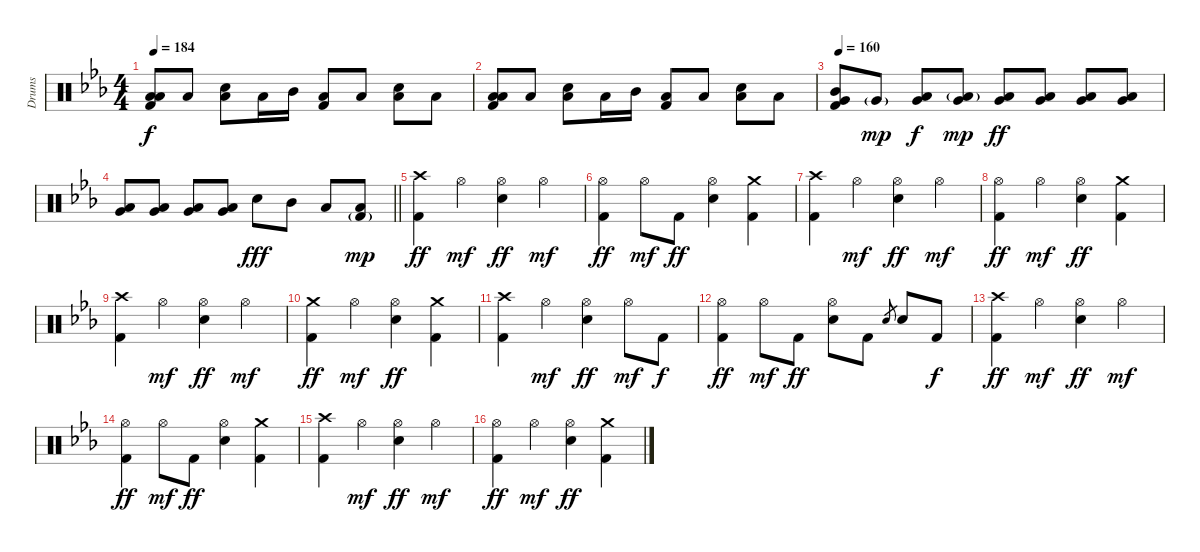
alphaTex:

\track ("Drums" "Drums") {instrument percussion}
\staff {score}
\articulation defaults
\ts (4 4)
\tempo 184
\clef neutral
\ks eb
("Low Tom (hit)" "Low Floor Tom (hit)" "Kick (hit) 2").8{dy f} "Low Floor Tom (hit)".8 ("Electric Snare (hit)" "Low Floor Tom (hit)").8 "Low Floor Tom (hit)".16 "Mid Tom (hit)".16 ("Low Floor Tom (hit)" "Kick (hit) 2").8 "Low Floor Tom (hit)".8 ("Electric Snare (hit)" "Low Floor Tom (hit)").8 "Low Floor Tom (hit)".8 |
("Low Tom (hit)" "Low Floor Tom (hit)" "Kick (hit) 2").8 "Low Floor Tom (hit)".8 ("Electric Snare (hit)" "Low Floor Tom (hit)").8 "Low Floor Tom (hit)".16 "Mid Tom (hit)".16 ("Low Floor Tom (hit)" "Kick (hit) 2").8 "Low Floor Tom (hit)".8 ("Electric Snare (hit)" "Low Floor Tom (hit)").8 "Low Floor Tom (hit)".8 |
\tempo 160
("Mid Tom (hit)" "Very Low Tom (hit)" "Kick (hit) 2").8{volume 10} "Very Low Tom (hit)"{g}.8{dy mp} ("Low Tom (hit)" "Very Low Tom (hit)").8{dy f volume 16} ("Low Tom (hit)"{g} "Very Low Tom (hit)").8{dy mp} ("Low Tom (hit)" "Very Low Tom (hit)").8{dy ff} ("Low Tom (hit)" "Very Low Tom (hit)").8 ("Low Tom (hit)" "Very Low Tom (hit)").8 ("Low Tom (hit)" "Very Low Tom (hit)").8 |
\barLineRight lightlight
("Low Tom (hit)" "Very Low Tom (hit)").8 ("Low Tom (hit)" "Very Low Tom (hit)").8 ("Low Tom (hit)" "Very Low Tom (hit)").8 ("Low Tom (hit)" "Very Low Tom (hit)").8 "Electric Snare (hit)".8{dy fff} "Mid Tom (hit)".8 "Low Tom (hit)".8 ("Low Floor Tom (hit)" "Kick (hit) 2"{g}).8{dy mp} |
("Crash high (hit)" "Kick (hit) 2").4{dy ff} "Hi-Hat (open)".4{dy mf} ("Hi-Hat (open)" "Electric Snare (hit)").4{dy ff} "Hi-Hat (open)".4{dy mf} |
("Hi-Hat (open)" "Kick (hit) 2").4{dy ff} "Hi-Hat (open)".8{dy mf} "Kick (hit) 2".8{dy ff} ("Hi-Hat (open)" "Electric Snare (hit)").4 ("Crash medium (hit)" "Kick (hit) 2").4 |
("Crash high (hit)" "Kick (hit) 2").4 "Hi-Hat (open)".4{dy mf} ("Hi-Hat (open)" "Electric Snare (hit)").4{dy ff} "Hi-Hat (open)".4{dy mf} |
("Hi-Hat (open)" "Kick (hit) 2").4{dy ff} "Hi-Hat (open)".4{dy mf} ("Hi-Hat (open)" "Electric Snare (hit)").4{dy ff} ("Crash medium (hit)" "Kick (hit) 2").4 |
("Crash high (hit)" "Kick (hit) 2").4 "Hi-Hat (open)".4{dy mf} ("Hi-Hat (open)" "Electric Snare (hit)").4{dy ff} "Hi-Hat (open)".4{dy mf} |
("Crash medium (hit)" "Kick (hit) 2").4{dy ff} "Hi-Hat (open)".4{dy mf} ("Hi-Hat (open)" "Electric Snare (hit)").4{dy ff} ("Crash medium (hit)" "Kick (hit) 2").4 |
("Crash high (hit)" "Kick (hit) 2").4 "Hi-Hat (open)".4{dy mf} ("Hi-Hat (open)" "Electric Snare (hit)").4{dy ff} "Hi-Hat (open)".8{dy mf} "Kick (hit) 2".8{dy f} |
("Hi-Hat (open)" "Kick (hit) 2").4{dy ff} "Hi-Hat (open)".8{dy mf} "Kick (hit) 2".8{dy ff} ("Hi-Hat (open)" "Electric Snare (hit)").8 "Kick (hit) 2".8 "Electric Snare (hit)".8{gr} "Electric Snare (hit)".8 "Kick (hit) 2".8{dy f} |
("Crash high (hit)" "Kick (hit) 2").4{dy ff} "Hi-Hat (open)".4{dy mf} ("Hi-Hat (open)" "Electric Snare (hit)").4{dy ff} "Hi-Hat (open)".4{dy mf} |
("Hi-Hat (open)" "Kick (hit) 2").4{dy ff} "Hi-Hat (open)".8{dy mf} "Kick (hit) 2".8{dy ff} ("Hi-Hat (open)" "Electric Snare (hit)").4 ("Crash medium (hit)" "Kick (hit) 2").4 |
("Crash high (hit)" "Kick (hit) 2").4 "Hi-Hat (open)".4{dy mf} ("Hi-Hat (open)" "Electric Snare (hit)").4{dy ff} "Hi-Hat (open)".4{dy mf} |
("Hi-Hat (open)" "Kick (hit) 2").4{dy ff} "Hi-Hat (open)".4{dy mf} ("Hi-Hat (open)" "Electric Snare (hit)").4{dy ff} ("Crash medium (hit)" "Kick (hit) 2").4
